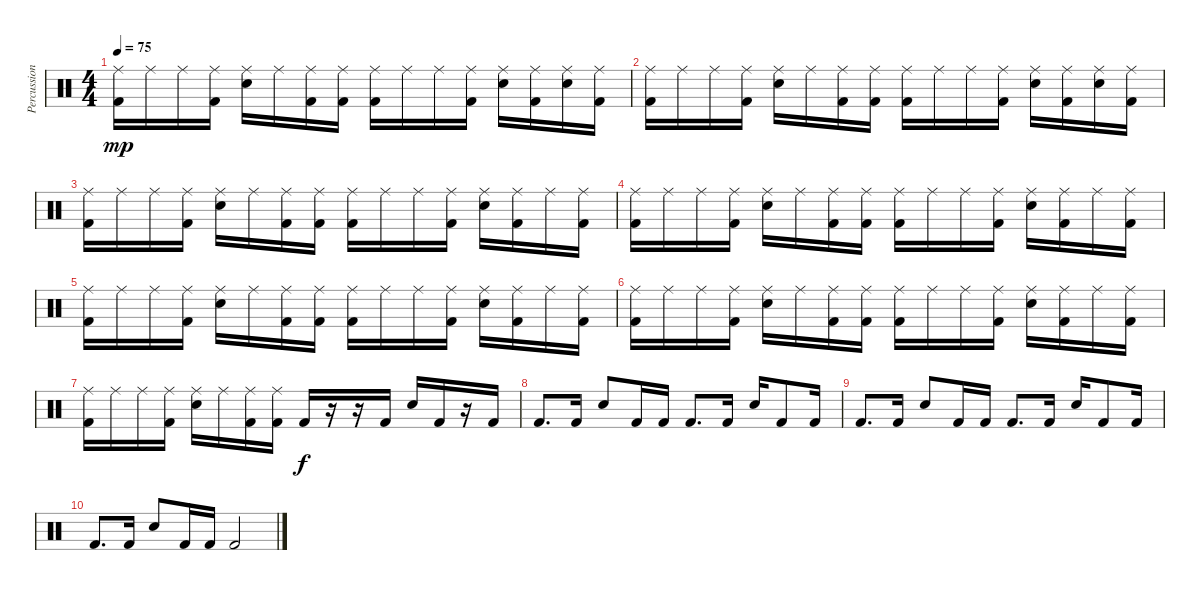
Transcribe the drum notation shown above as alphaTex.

\track ("Percussions" "Percussion") {instrument percussion}
\staff {score}
\articulation defaults
\ts (4 4)
\tempo 75
\clef neutral
\ks c
("Ride (middle)" "Kick (hit) 2").16{dy mp} "Ride (middle)".16 "Ride (middle)".16 ("Ride (middle)" "Kick (hit) 2").16 ("Ride (middle)" "Snare (hit) 2").16 "Ride (middle)".16 ("Ride (middle)" "Kick (hit) 2").16 ("Ride (middle)" "Kick (hit) 2").16 ("Ride (middle)" "Kick (hit) 2").16 "Ride (middle)".16 "Ride (middle)".16 ("Ride (middle)" "Kick (hit) 2").16 ("Ride (middle)" "Snare (hit) 2").16 ("Ride (middle)" "Kick (hit) 2").16 ("Ride (middle)" "Snare (hit) 2").16 ("Ride (middle)" "Kick (hit) 2").16 |
("Ride (middle)" "Kick (hit) 2").16 "Ride (middle)".16 "Ride (middle)".16 ("Ride (middle)" "Kick (hit) 2").16 ("Ride (middle)" "Snare (hit) 2").16 "Ride (middle)".16 ("Ride (middle)" "Kick (hit) 2").16 ("Ride (middle)" "Kick (hit) 2").16 ("Ride (middle)" "Kick (hit) 2").16 "Ride (middle)".16 "Ride (middle)".16 ("Ride (middle)" "Kick (hit) 2").16 ("Ride (middle)" "Snare (hit) 2").16 ("Ride (middle)" "Kick (hit) 2").16 ("Ride (middle)" "Snare (hit) 2").16 ("Ride (middle)" "Kick (hit) 2").16 |
("Ride (middle)" "Kick (hit) 2").16 "Ride (middle)".16 "Ride (middle)".16 ("Ride (middle)" "Kick (hit) 2").16 ("Ride (middle)" "Snare (hit) 2").16 "Ride (middle)".16 ("Ride (middle)" "Kick (hit) 2").16 ("Ride (middle)" "Kick (hit) 2").16 ("Ride (middle)" "Kick (hit) 2").16 "Ride (middle)".16 "Ride (middle)".16 ("Ride (middle)" "Kick (hit) 2").16 ("Ride (middle)" "Snare (hit) 2").16 ("Ride (middle)" "Kick (hit) 2").16 "Ride (middle)".16 ("Ride (middle)" "Kick (hit) 2").16 |
("Ride (middle)" "Kick (hit) 2").16 "Ride (middle)".16 "Ride (middle)".16 ("Ride (middle)" "Kick (hit) 2").16 ("Ride (middle)" "Snare (hit) 2").16 "Ride (middle)".16 ("Ride (middle)" "Kick (hit) 2").16 ("Ride (middle)" "Kick (hit) 2").16 ("Ride (middle)" "Kick (hit) 2").16 "Ride (middle)".16 "Ride (middle)".16 ("Ride (middle)" "Kick (hit) 2").16 ("Ride (middle)" "Snare (hit) 2").16 ("Ride (middle)" "Kick (hit) 2").16 "Ride (middle)".16 ("Ride (middle)" "Kick (hit) 2").16 |
("Ride (middle)" "Kick (hit) 2").16 "Ride (middle)".16 "Ride (middle)".16 ("Ride (middle)" "Kick (hit) 2").16 ("Ride (middle)" "Snare (hit) 2").16 "Ride (middle)".16 ("Ride (middle)" "Kick (hit) 2").16 ("Ride (middle)" "Kick (hit) 2").16 ("Ride (middle)" "Kick (hit) 2").16 "Ride (middle)".16 "Ride (middle)".16 ("Ride (middle)" "Kick (hit) 2").16 ("Ride (middle)" "Snare (hit) 2").16 ("Ride (middle)" "Kick (hit) 2").16 "Ride (middle)".16 ("Ride (middle)" "Kick (hit) 2").16 |
("Ride (middle)" "Kick (hit) 2").16 "Ride (middle)".16 "Ride (middle)".16 ("Ride (middle)" "Kick (hit) 2").16 ("Ride (middle)" "Snare (hit) 2").16 "Ride (middle)".16 ("Ride (middle)" "Kick (hit) 2").16 ("Ride (middle)" "Kick (hit) 2").16 ("Ride (middle)" "Kick (hit) 2").16 "Ride (middle)".16 "Ride (middle)".16 ("Ride (middle)" "Kick (hit) 2").16 ("Ride (middle)" "Snare (hit) 2").16 ("Ride (middle)" "Kick (hit) 2").16 "Ride (middle)".16 ("Ride (middle)" "Kick (hit) 2").16 |
("Ride (middle)" "Kick (hit) 2").16 "Ride (middle)".16 "Ride (middle)".16 ("Ride (middle)" "Kick (hit) 2").16 ("Ride (middle)" "Snare (hit) 2").16 "Ride (middle)".16 ("Ride (middle)" "Kick (hit) 2").16 ("Ride (middle)" "Kick (hit) 2").16 "Kick (hit) 2".16{dy f} r.16 r.16 "Kick (hit) 2".16 "Snare (hit) 2".16 "Kick (hit) 2".16 r.16 "Kick (hit) 2".16 |
"Kick (hit) 2".8{d} "Kick (hit) 2".16 "Snare (hit) 2".8 "Kick (hit) 2".16 "Kick (hit) 2".16 "Kick (hit) 2".8{d} "Kick (hit) 2".16 "Snare (hit) 2".16 "Kick (hit) 2".8 "Kick (hit) 2".16 |
"Kick (hit) 2".8{d} "Kick (hit) 2".16 "Snare (hit) 2".8 "Kick (hit) 2".16 "Kick (hit) 2".16 "Kick (hit) 2".8{d} "Kick (hit) 2".16 "Snare (hit) 2".16 "Kick (hit) 2".8 "Kick (hit) 2".16 |
"Kick (hit) 2".8{d} "Kick (hit) 2".16 "Snare (hit) 2".8 "Kick (hit) 2".16 "Kick (hit) 2".16 "Kick (hit) 2".2
